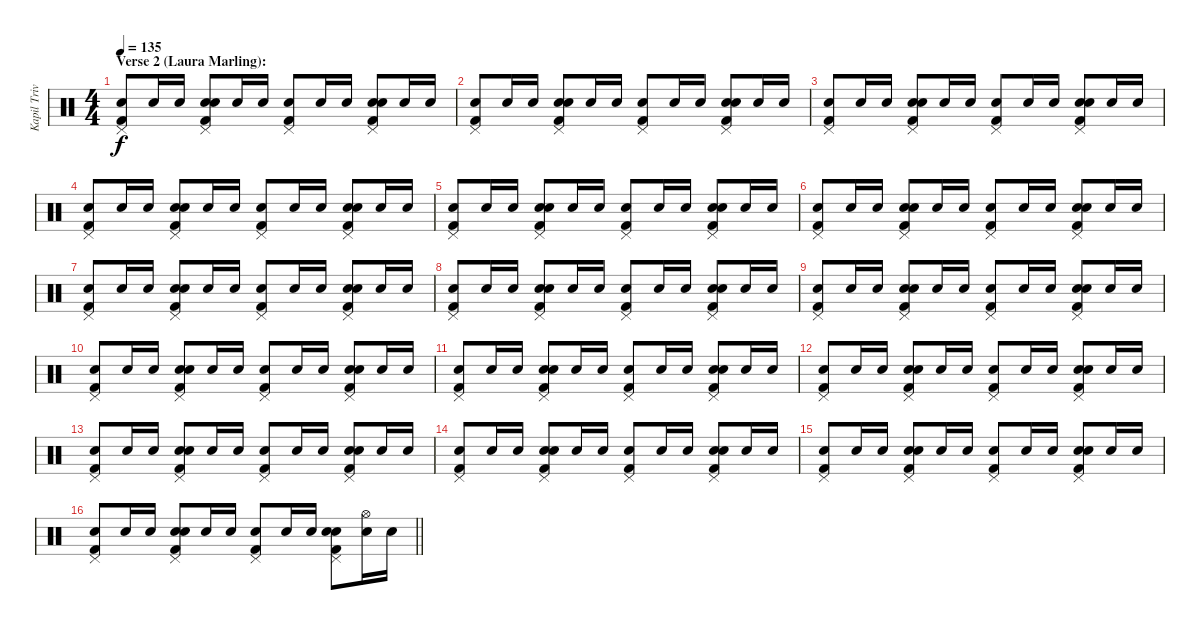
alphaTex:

\track ("Kapil Trivedi (Percussion)" "Kapil Triv") {instrument percussion}
\staff {score}
\articulation defaults
\ts (4 4)
\section ("" "Verse 2 (Laura Marling):")
\tempo 135
\clef neutral
\ks c
("Pedal Hi-Hat (hit)" "Snare (hit) 2" "Kick (hit) 2").8{dy f} "Snare (hit) 2".16 "Snare (hit) 2".16 ("Hand Clap (hit)" "Pedal Hi-Hat (hit)" "Snare (hit) 2" "Kick (hit) 2").8 "Snare (hit) 2".16 "Snare (hit) 2".16 ("Pedal Hi-Hat (hit)" "Snare (hit) 2" "Kick (hit) 2").8 "Snare (hit) 2".16 "Snare (hit) 2".16 ("Hand Clap (hit)" "Pedal Hi-Hat (hit)" "Snare (hit) 2" "Kick (hit) 2").8 "Snare (hit) 2".16 "Snare (hit) 2".16 |
("Pedal Hi-Hat (hit)" "Snare (hit) 2" "Kick (hit) 2").8 "Snare (hit) 2".16 "Snare (hit) 2".16 ("Hand Clap (hit)" "Pedal Hi-Hat (hit)" "Snare (hit) 2" "Kick (hit) 2").8 "Snare (hit) 2".16 "Snare (hit) 2".16 ("Pedal Hi-Hat (hit)" "Snare (hit) 2" "Kick (hit) 2").8 "Snare (hit) 2".16 "Snare (hit) 2".16 ("Hand Clap (hit)" "Pedal Hi-Hat (hit)" "Snare (hit) 2" "Kick (hit) 2").8 "Snare (hit) 2".16 "Snare (hit) 2".16 |
("Pedal Hi-Hat (hit)" "Snare (hit) 2" "Kick (hit) 2").8 "Snare (hit) 2".16 "Snare (hit) 2".16 ("Hand Clap (hit)" "Pedal Hi-Hat (hit)" "Snare (hit) 2" "Kick (hit) 2").8 "Snare (hit) 2".16 "Snare (hit) 2".16 ("Pedal Hi-Hat (hit)" "Snare (hit) 2" "Kick (hit) 2").8 "Snare (hit) 2".16 "Snare (hit) 2".16 ("Hand Clap (hit)" "Pedal Hi-Hat (hit)" "Snare (hit) 2" "Kick (hit) 2").8 "Snare (hit) 2".16 "Snare (hit) 2".16 |
("Pedal Hi-Hat (hit)" "Snare (hit) 2" "Kick (hit) 2").8 "Snare (hit) 2".16 "Snare (hit) 2".16 ("Hand Clap (hit)" "Pedal Hi-Hat (hit)" "Snare (hit) 2" "Kick (hit) 2").8 "Snare (hit) 2".16 "Snare (hit) 2".16 ("Pedal Hi-Hat (hit)" "Snare (hit) 2" "Kick (hit) 2").8 "Snare (hit) 2".16 "Snare (hit) 2".16 ("Hand Clap (hit)" "Pedal Hi-Hat (hit)" "Snare (hit) 2" "Kick (hit) 2").8 "Snare (hit) 2".16 "Snare (hit) 2".16 |
("Pedal Hi-Hat (hit)" "Snare (hit) 2" "Kick (hit) 2").8 "Snare (hit) 2".16 "Snare (hit) 2".16 ("Hand Clap (hit)" "Pedal Hi-Hat (hit)" "Snare (hit) 2" "Kick (hit) 2").8 "Snare (hit) 2".16 "Snare (hit) 2".16 ("Pedal Hi-Hat (hit)" "Snare (hit) 2" "Kick (hit) 2").8 "Snare (hit) 2".16 "Snare (hit) 2".16 ("Hand Clap (hit)" "Pedal Hi-Hat (hit)" "Snare (hit) 2" "Kick (hit) 2").8 "Snare (hit) 2".16 "Snare (hit) 2".16 |
("Pedal Hi-Hat (hit)" "Snare (hit) 2" "Kick (hit) 2").8 "Snare (hit) 2".16 "Snare (hit) 2".16 ("Hand Clap (hit)" "Pedal Hi-Hat (hit)" "Snare (hit) 2" "Kick (hit) 2").8 "Snare (hit) 2".16 "Snare (hit) 2".16 ("Pedal Hi-Hat (hit)" "Snare (hit) 2" "Kick (hit) 2").8 "Snare (hit) 2".16 "Snare (hit) 2".16 ("Hand Clap (hit)" "Pedal Hi-Hat (hit)" "Snare (hit) 2" "Kick (hit) 2").8 "Snare (hit) 2".16 "Snare (hit) 2".16 |
("Pedal Hi-Hat (hit)" "Snare (hit) 2" "Kick (hit) 2").8 "Snare (hit) 2".16 "Snare (hit) 2".16 ("Hand Clap (hit)" "Pedal Hi-Hat (hit)" "Snare (hit) 2" "Kick (hit) 2").8 "Snare (hit) 2".16 "Snare (hit) 2".16 ("Pedal Hi-Hat (hit)" "Snare (hit) 2" "Kick (hit) 2").8 "Snare (hit) 2".16 "Snare (hit) 2".16 ("Hand Clap (hit)" "Pedal Hi-Hat (hit)" "Snare (hit) 2" "Kick (hit) 2").8 "Snare (hit) 2".16 "Snare (hit) 2".16 |
("Pedal Hi-Hat (hit)" "Snare (hit) 2" "Kick (hit) 2").8 "Snare (hit) 2".16 "Snare (hit) 2".16 ("Hand Clap (hit)" "Pedal Hi-Hat (hit)" "Snare (hit) 2" "Kick (hit) 2").8 "Snare (hit) 2".16 "Snare (hit) 2".16 ("Pedal Hi-Hat (hit)" "Snare (hit) 2" "Kick (hit) 2").8 "Snare (hit) 2".16 "Snare (hit) 2".16 ("Hand Clap (hit)" "Pedal Hi-Hat (hit)" "Snare (hit) 2" "Kick (hit) 2").8 "Snare (hit) 2".16 "Snare (hit) 2".16 |
("Pedal Hi-Hat (hit)" "Snare (hit) 2" "Kick (hit) 2").8 "Snare (hit) 2".16 "Snare (hit) 2".16 ("Hand Clap (hit)" "Pedal Hi-Hat (hit)" "Snare (hit) 2" "Kick (hit) 2").8 "Snare (hit) 2".16 "Snare (hit) 2".16 ("Pedal Hi-Hat (hit)" "Snare (hit) 2" "Kick (hit) 2").8 "Snare (hit) 2".16 "Snare (hit) 2".16 ("Hand Clap (hit)" "Pedal Hi-Hat (hit)" "Snare (hit) 2" "Kick (hit) 2").8 "Snare (hit) 2".16 "Snare (hit) 2".16 |
("Pedal Hi-Hat (hit)" "Snare (hit) 2" "Kick (hit) 2").8 "Snare (hit) 2".16 "Snare (hit) 2".16 ("Hand Clap (hit)" "Pedal Hi-Hat (hit)" "Snare (hit) 2" "Kick (hit) 2").8 "Snare (hit) 2".16 "Snare (hit) 2".16 ("Pedal Hi-Hat (hit)" "Snare (hit) 2" "Kick (hit) 2").8 "Snare (hit) 2".16 "Snare (hit) 2".16 ("Hand Clap (hit)" "Pedal Hi-Hat (hit)" "Snare (hit) 2" "Kick (hit) 2").8 "Snare (hit) 2".16 "Snare (hit) 2".16 |
("Pedal Hi-Hat (hit)" "Snare (hit) 2" "Kick (hit) 2").8 "Snare (hit) 2".16 "Snare (hit) 2".16 ("Hand Clap (hit)" "Pedal Hi-Hat (hit)" "Snare (hit) 2" "Kick (hit) 2").8 "Snare (hit) 2".16 "Snare (hit) 2".16 ("Pedal Hi-Hat (hit)" "Snare (hit) 2" "Kick (hit) 2").8 "Snare (hit) 2".16 "Snare (hit) 2".16 ("Hand Clap (hit)" "Pedal Hi-Hat (hit)" "Snare (hit) 2" "Kick (hit) 2").8 "Snare (hit) 2".16 "Snare (hit) 2".16 |
("Pedal Hi-Hat (hit)" "Snare (hit) 2" "Kick (hit) 2").8 "Snare (hit) 2".16 "Snare (hit) 2".16 ("Hand Clap (hit)" "Pedal Hi-Hat (hit)" "Snare (hit) 2" "Kick (hit) 2").8 "Snare (hit) 2".16 "Snare (hit) 2".16 ("Pedal Hi-Hat (hit)" "Snare (hit) 2" "Kick (hit) 2").8 "Snare (hit) 2".16 "Snare (hit) 2".16 ("Hand Clap (hit)" "Pedal Hi-Hat (hit)" "Snare (hit) 2" "Kick (hit) 2").8 "Snare (hit) 2".16 "Snare (hit) 2".16 |
("Pedal Hi-Hat (hit)" "Snare (hit) 2" "Kick (hit) 2").8 "Snare (hit) 2".16 "Snare (hit) 2".16 ("Hand Clap (hit)" "Pedal Hi-Hat (hit)" "Snare (hit) 2" "Kick (hit) 2").8 "Snare (hit) 2".16 "Snare (hit) 2".16 ("Pedal Hi-Hat (hit)" "Snare (hit) 2" "Kick (hit) 2").8 "Snare (hit) 2".16 "Snare (hit) 2".16 ("Hand Clap (hit)" "Pedal Hi-Hat (hit)" "Snare (hit) 2" "Kick (hit) 2").8 "Snare (hit) 2".16 "Snare (hit) 2".16 |
("Pedal Hi-Hat (hit)" "Snare (hit) 2" "Kick (hit) 2").8 "Snare (hit) 2".16 "Snare (hit) 2".16 ("Hand Clap (hit)" "Pedal Hi-Hat (hit)" "Snare (hit) 2" "Kick (hit) 2").8 "Snare (hit) 2".16 "Snare (hit) 2".16 ("Pedal Hi-Hat (hit)" "Snare (hit) 2" "Kick (hit) 2").8 "Snare (hit) 2".16 "Snare (hit) 2".16 ("Hand Clap (hit)" "Pedal Hi-Hat (hit)" "Snare (hit) 2" "Kick (hit) 2").8 "Snare (hit) 2".16 "Snare (hit) 2".16 |
("Pedal Hi-Hat (hit)" "Snare (hit) 2" "Kick (hit) 2").8 "Snare (hit) 2".16 "Snare (hit) 2".16 ("Hand Clap (hit)" "Pedal Hi-Hat (hit)" "Snare (hit) 2" "Kick (hit) 2").8 "Snare (hit) 2".16 "Snare (hit) 2".16 ("Pedal Hi-Hat (hit)" "Snare (hit) 2" "Kick (hit) 2").8 "Snare (hit) 2".16 "Snare (hit) 2".16 ("Hand Clap (hit)" "Pedal Hi-Hat (hit)" "Snare (hit) 2" "Kick (hit) 2").8 "Snare (hit) 2".16 "Snare (hit) 2".16 |
\barLineRight lightlight
("Pedal Hi-Hat (hit)" "Snare (hit) 2" "Kick (hit) 2").8 "Snare (hit) 2".16 "Snare (hit) 2".16 ("Hand Clap (hit)" "Pedal Hi-Hat (hit)" "Snare (hit) 2" "Kick (hit) 2").8 "Snare (hit) 2".16 "Snare (hit) 2".16 ("Pedal Hi-Hat (hit)" "Snare (hit) 2" "Kick (hit) 2").8 "Snare (hit) 2".16 "Snare (hit) 2".16 ("Hand Clap (hit)" "Pedal Hi-Hat (hit)" "Snare (hit) 2" "Kick (hit) 2").8 ("Hi-Hat (open)" "Snare (hit) 2").16 "Snare (hit) 2".16
